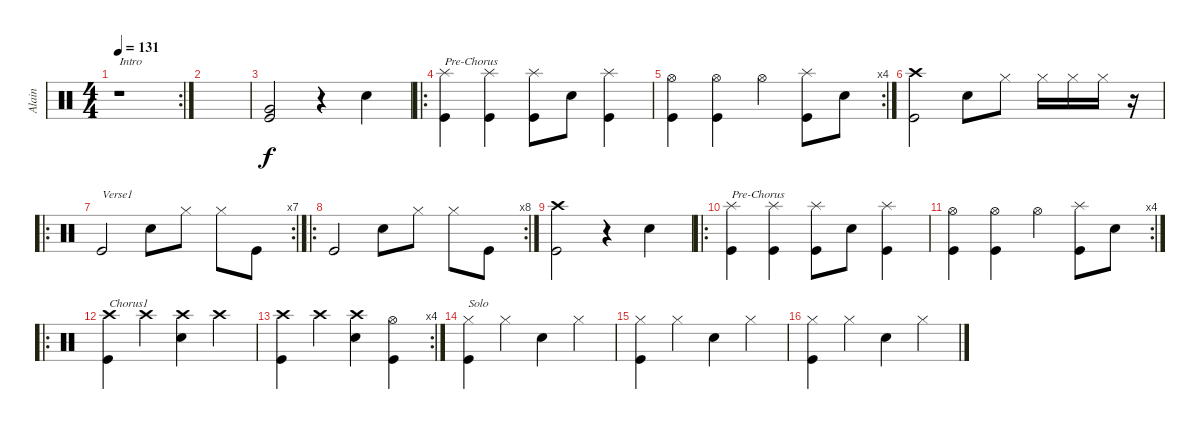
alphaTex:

\track ("Alain" "Alain") {instrument percussion}
\staff {score}
\articulation defaults
\rc 2
\ts (4 4)
\tempo 131
\clef neutral
\ks c
r.1{txt "Intro" dy f} |
|
("Very Low Tom (hit)" "Kick (hit)").2 r.4 "Snare (hit) 2".4 |
\ro
("Splash (hit)" "Kick (hit)").4{txt "Pre-Chorus"} ("Splash (hit)" "Kick (hit)").4 ("Splash (hit)" "Kick (hit)").8 "Snare (hit) 2".8 ("Splash (hit)" "Kick (hit)").4 |
\rc 4
("Hi-Hat (open)" "Kick (hit)").4 ("Hi-Hat (open)" "Kick (hit)").4 "Hi-Hat (open)".4 ("Splash (hit)" "Kick (hit)").8 "Snare (hit) 2".8 |
("Crash high (hit)" "Kick (hit)").2 "Electric Snare (hit)".8 "Hi-Hat (closed)".8 "Hi-Hat (closed)".16 "Hi-Hat (closed)".16 "Hi-Hat (closed)".16 r.16 |
\ro
\rc 7 "Kick (hit)".2{txt "Verse1"} "Electric Snare (hit)".8 "Hi-Hat (closed)".8 "Hi-Hat (closed)".8 "Kick (hit)".8
|
\ro
\rc 8 "Kick (hit)".2 "Electric Snare (hit)".8 "Hi-Hat (closed)".8 "Hi-Hat (closed)".8 "Kick (hit)".8
|
("Crash high (hit)" "Kick (hit)").2 r.4 "Snare (hit) 2".4 |
\ro
("Splash (hit)" "Kick (hit)").4{txt "Pre-Chorus"} ("Splash (hit)" "Kick (hit)").4 ("Splash (hit)" "Kick (hit)").8 "Snare (hit) 2".8 ("Splash (hit)" "Kick (hit)").4 |
\rc 4
("Hi-Hat (open)" "Kick (hit)").4 ("Hi-Hat (open)" "Kick (hit)").4 "Hi-Hat (open)".4 ("Splash (hit)" "Kick (hit)").8 "Snare (hit) 2".8 |
\ro
("Crash high (hit)" "Kick (hit)").4{txt "Chorus1"} "Crash high (hit)".4 ("Crash high (hit)" "Snare (hit) 2").4 "Crash high (hit)".4 |
\rc 4
("Crash high (hit)" "Kick (hit)").4 "Crash high (hit)".4 ("Crash high (hit)" "Snare (hit) 2").4 ("Hi-Hat (open)" "Kick (hit)").4 |
("Hi-Hat (closed)" "Kick (hit)").4{txt "Solo"} "Hi-Hat (closed)".4 "Electric Snare (hit)".4 "Hi-Hat (closed)".4 |
("Hi-Hat (closed)" "Kick (hit)").4 "Hi-Hat (closed)".4 "Electric Snare (hit)".4 "Hi-Hat (closed)".4 |
("Hi-Hat (closed)" "Kick (hit)").4 "Hi-Hat (closed)".4 "Electric Snare (hit)".4 "Hi-Hat (closed)".4
